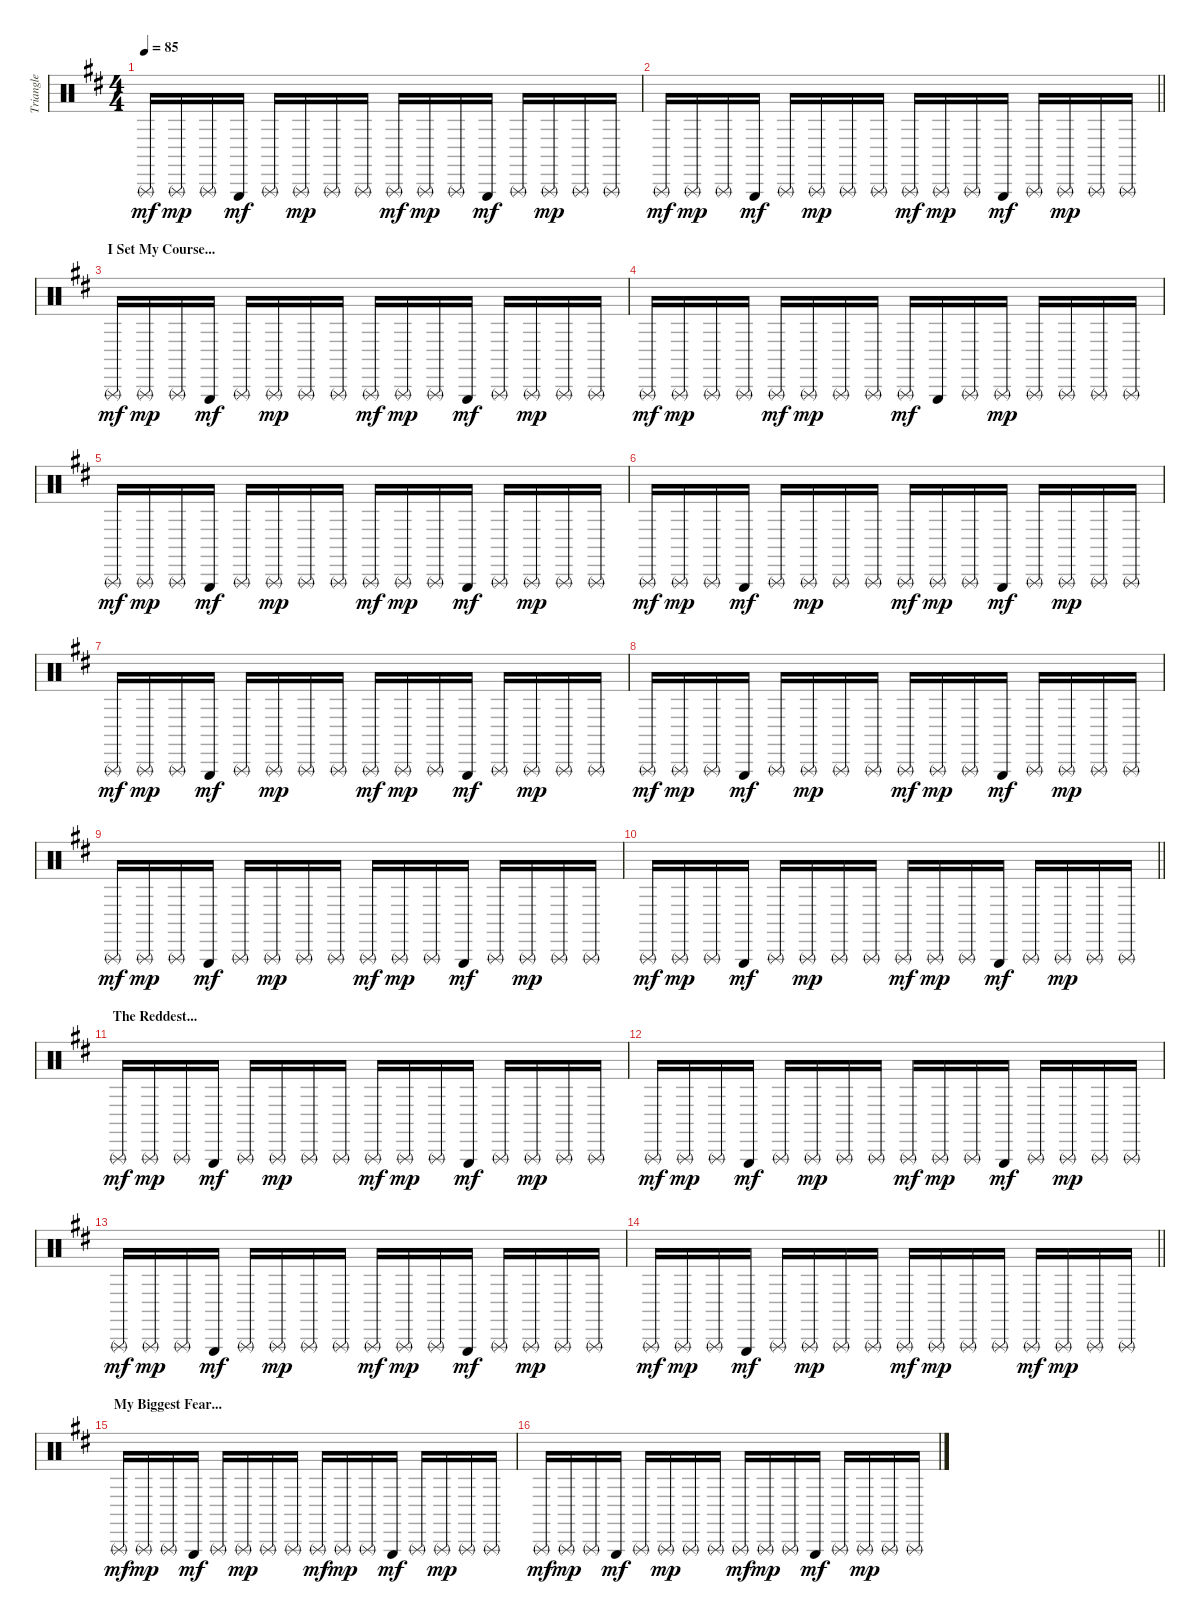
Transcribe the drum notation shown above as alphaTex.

\track ("Triangle" "Triangle") {instrument percussion}
\staff {score}
\articulation defaults
\ts (4 4)
\tempo 85
\clef neutral
\ks bminor "Triangle (rnute)".16{dy mf} "Triangle (rnute)".16{dy mp} "Triangle (rnute)".16 "Triangle (hit)".16{dy mf} "Triangle (rnute)".16 "Triangle (rnute)".16{dy mp} "Triangle (rnute)".16 "Triangle (rnute)".16 "Triangle (rnute)".16{dy mf} "Triangle (rnute)".16{dy mp} "Triangle (rnute)".16 "Triangle (hit)".16{dy mf} "Triangle (rnute)".16 "Triangle (rnute)".16{dy mp} "Triangle (rnute)".16 "Triangle (rnute)".16
|
\barLineRight lightlight "Triangle (rnute)".16{dy mf} "Triangle (rnute)".16{dy mp} "Triangle (rnute)".16 "Triangle (hit)".16{dy mf} "Triangle (rnute)".16 "Triangle (rnute)".16{dy mp} "Triangle (rnute)".16 "Triangle (rnute)".16 "Triangle (rnute)".16{dy mf} "Triangle (rnute)".16{dy mp} "Triangle (rnute)".16 "Triangle (hit)".16{dy mf} "Triangle (rnute)".16 "Triangle (rnute)".16{dy mp} "Triangle (rnute)".16 "Triangle (rnute)".16
|
\section ("" "I Set My Course...")
"Triangle (rnute)".16{dy mf} "Triangle (rnute)".16{dy mp} "Triangle (rnute)".16 "Triangle (hit)".16{dy mf} "Triangle (rnute)".16 "Triangle (rnute)".16{dy mp} "Triangle (rnute)".16 "Triangle (rnute)".16 "Triangle (rnute)".16{dy mf} "Triangle (rnute)".16{dy mp} "Triangle (rnute)".16 "Triangle (hit)".16{dy mf} "Triangle (rnute)".16 "Triangle (rnute)".16{dy mp} "Triangle (rnute)".16 "Triangle (rnute)".16 |
"Triangle (rnute)".16{dy mf} "Triangle (rnute)".16{dy mp} "Triangle (rnute)".16 "Triangle (rnute)".16 "Triangle (rnute)".16{dy mf} "Triangle (rnute)".16{dy mp} "Triangle (rnute)".16 "Triangle (rnute)".16 "Triangle (rnute)".16{dy mf} "Triangle (hit)".16 "Triangle (rnute)".16 "Triangle (rnute)".16{dy mp} "Triangle (rnute)".16 "Triangle (rnute)".16 "Triangle (rnute)".16 "Triangle (rnute)".16 |
"Triangle (rnute)".16{dy mf} "Triangle (rnute)".16{dy mp} "Triangle (rnute)".16 "Triangle (hit)".16{dy mf} "Triangle (rnute)".16 "Triangle (rnute)".16{dy mp} "Triangle (rnute)".16 "Triangle (rnute)".16 "Triangle (rnute)".16{dy mf} "Triangle (rnute)".16{dy mp} "Triangle (rnute)".16 "Triangle (hit)".16{dy mf} "Triangle (rnute)".16 "Triangle (rnute)".16{dy mp} "Triangle (rnute)".16 "Triangle (rnute)".16 |
"Triangle (rnute)".16{dy mf} "Triangle (rnute)".16{dy mp} "Triangle (rnute)".16 "Triangle (hit)".16{dy mf} "Triangle (rnute)".16 "Triangle (rnute)".16{dy mp} "Triangle (rnute)".16 "Triangle (rnute)".16 "Triangle (rnute)".16{dy mf} "Triangle (rnute)".16{dy mp} "Triangle (rnute)".16 "Triangle (hit)".16{dy mf} "Triangle (rnute)".16 "Triangle (rnute)".16{dy mp} "Triangle (rnute)".16 "Triangle (rnute)".16 |
"Triangle (rnute)".16{dy mf} "Triangle (rnute)".16{dy mp} "Triangle (rnute)".16 "Triangle (hit)".16{dy mf} "Triangle (rnute)".16 "Triangle (rnute)".16{dy mp} "Triangle (rnute)".16 "Triangle (rnute)".16 "Triangle (rnute)".16{dy mf} "Triangle (rnute)".16{dy mp} "Triangle (rnute)".16 "Triangle (hit)".16{dy mf} "Triangle (rnute)".16 "Triangle (rnute)".16{dy mp} "Triangle (rnute)".16 "Triangle (rnute)".16 |
"Triangle (rnute)".16{dy mf} "Triangle (rnute)".16{dy mp} "Triangle (rnute)".16 "Triangle (hit)".16{dy mf} "Triangle (rnute)".16 "Triangle (rnute)".16{dy mp} "Triangle (rnute)".16 "Triangle (rnute)".16 "Triangle (rnute)".16{dy mf} "Triangle (rnute)".16{dy mp} "Triangle (rnute)".16 "Triangle (hit)".16{dy mf} "Triangle (rnute)".16 "Triangle (rnute)".16{dy mp} "Triangle (rnute)".16 "Triangle (rnute)".16 |
"Triangle (rnute)".16{dy mf} "Triangle (rnute)".16{dy mp} "Triangle (rnute)".16 "Triangle (hit)".16{dy mf} "Triangle (rnute)".16 "Triangle (rnute)".16{dy mp} "Triangle (rnute)".16 "Triangle (rnute)".16 "Triangle (rnute)".16{dy mf} "Triangle (rnute)".16{dy mp} "Triangle (rnute)".16 "Triangle (hit)".16{dy mf} "Triangle (rnute)".16 "Triangle (rnute)".16{dy mp} "Triangle (rnute)".16 "Triangle (rnute)".16 |
\barLineRight lightlight "Triangle (rnute)".16{dy mf} "Triangle (rnute)".16{dy mp} "Triangle (rnute)".16 "Triangle (hit)".16{dy mf} "Triangle (rnute)".16 "Triangle (rnute)".16{dy mp} "Triangle (rnute)".16 "Triangle (rnute)".16 "Triangle (rnute)".16{dy mf} "Triangle (rnute)".16{dy mp} "Triangle (rnute)".16 "Triangle (hit)".16{dy mf} "Triangle (rnute)".16 "Triangle (rnute)".16{dy mp} "Triangle (rnute)".16 "Triangle (rnute)".16
|
\section ("" "The Reddest...")
"Triangle (rnute)".16{dy mf} "Triangle (rnute)".16{dy mp} "Triangle (rnute)".16 "Triangle (hit)".16{dy mf} "Triangle (rnute)".16 "Triangle (rnute)".16{dy mp} "Triangle (rnute)".16 "Triangle (rnute)".16 "Triangle (rnute)".16{dy mf} "Triangle (rnute)".16{dy mp} "Triangle (rnute)".16 "Triangle (hit)".16{dy mf} "Triangle (rnute)".16 "Triangle (rnute)".16{dy mp} "Triangle (rnute)".16 "Triangle (rnute)".16 |
"Triangle (rnute)".16{dy mf} "Triangle (rnute)".16{dy mp} "Triangle (rnute)".16 "Triangle (hit)".16{dy mf} "Triangle (rnute)".16 "Triangle (rnute)".16{dy mp} "Triangle (rnute)".16 "Triangle (rnute)".16 "Triangle (rnute)".16{dy mf} "Triangle (rnute)".16{dy mp} "Triangle (rnute)".16 "Triangle (hit)".16{dy mf} "Triangle (rnute)".16 "Triangle (rnute)".16{dy mp} "Triangle (rnute)".16 "Triangle (rnute)".16 |
"Triangle (rnute)".16{dy mf} "Triangle (rnute)".16{dy mp} "Triangle (rnute)".16 "Triangle (hit)".16{dy mf} "Triangle (rnute)".16 "Triangle (rnute)".16{dy mp} "Triangle (rnute)".16 "Triangle (rnute)".16 "Triangle (rnute)".16{dy mf} "Triangle (rnute)".16{dy mp} "Triangle (rnute)".16 "Triangle (hit)".16{dy mf} "Triangle (rnute)".16 "Triangle (rnute)".16{dy mp} "Triangle (rnute)".16 "Triangle (rnute)".16 |
\barLineRight lightlight "Triangle (rnute)".16{dy mf} "Triangle (rnute)".16{dy mp} "Triangle (rnute)".16 "Triangle (hit)".16{dy mf} "Triangle (rnute)".16 "Triangle (rnute)".16{dy mp} "Triangle (rnute)".16 "Triangle (rnute)".16 "Triangle (rnute)".16{dy mf} "Triangle (rnute)".16{dy mp} "Triangle (rnute)".16 "Triangle (rnute)".16 "Triangle (rnute)".16{dy mf} "Triangle (rnute)".16{dy mp} "Triangle (rnute)".16 "Triangle (rnute)".16
|
\section ("" "My Biggest Fear...")
"Triangle (rnute)".16{dy mf} "Triangle (rnute)".16{dy mp} "Triangle (rnute)".16 "Triangle (hit)".16{dy mf} "Triangle (rnute)".16 "Triangle (rnute)".16{dy mp} "Triangle (rnute)".16 "Triangle (rnute)".16 "Triangle (rnute)".16{dy mf} "Triangle (rnute)".16{dy mp} "Triangle (rnute)".16 "Triangle (hit)".16{dy mf} "Triangle (rnute)".16 "Triangle (rnute)".16{dy mp} "Triangle (rnute)".16 "Triangle (rnute)".16 |
"Triangle (rnute)".16{dy mf} "Triangle (rnute)".16{dy mp} "Triangle (rnute)".16 "Triangle (hit)".16{dy mf} "Triangle (rnute)".16 "Triangle (rnute)".16{dy mp} "Triangle (rnute)".16 "Triangle (rnute)".16 "Triangle (rnute)".16{dy mf} "Triangle (rnute)".16{dy mp} "Triangle (rnute)".16 "Triangle (hit)".16{dy mf} "Triangle (rnute)".16 "Triangle (rnute)".16{dy mp} "Triangle (rnute)".16 "Triangle (rnute)".16
